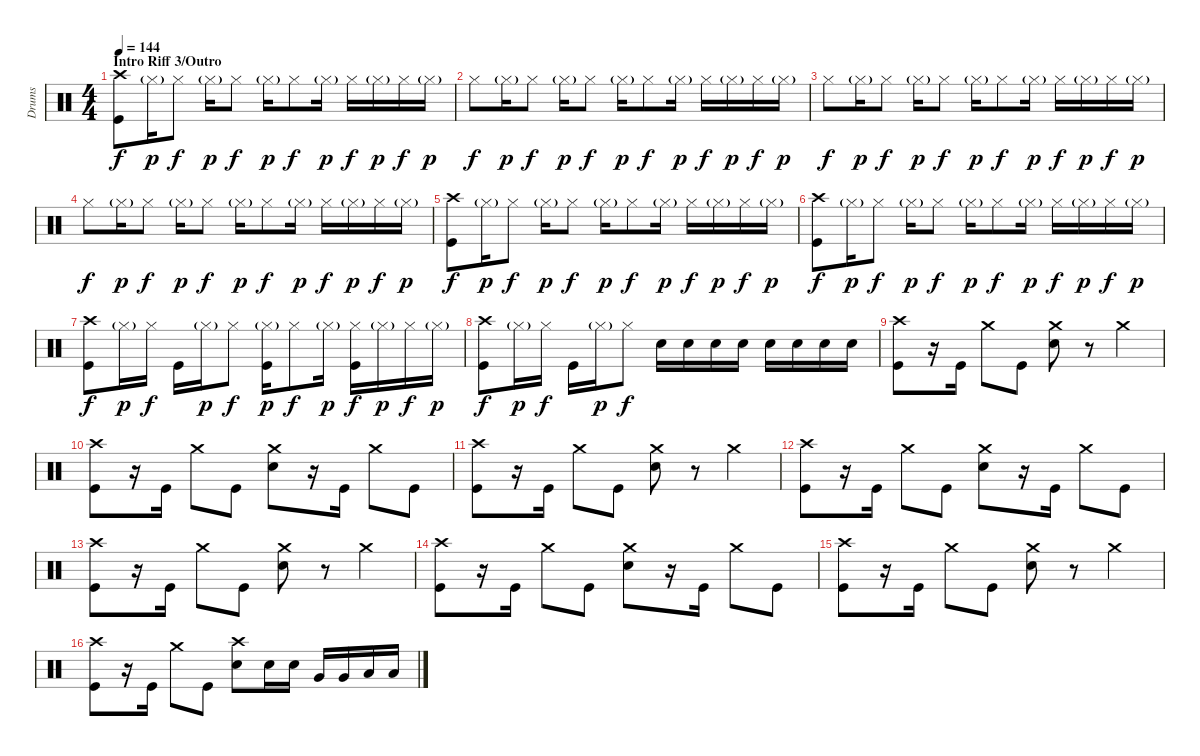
\track ("Drums" "Drums") {instrument percussion}
\staff {score}
\articulation defaults
\ts (4 4)
\section ("" "Intro Riff 3/Outro")
\tempo 144
\clef neutral
\ks c
("Crash high (hit)" "Kick (hit)").8{dy f} "Hi-Hat (closed)"{g}.16{dy p} "Hi-Hat (closed)".8{dy f} "Hi-Hat (closed)"{g}.16{dy p} "Hi-Hat (closed)".8{dy f} "Hi-Hat (closed)"{g}.16{dy p} "Hi-Hat (closed)".8{dy f} "Hi-Hat (closed)"{g}.16{dy p} "Hi-Hat (closed)".16{dy f} "Hi-Hat (closed)"{g}.16{dy p} "Hi-Hat (closed)".16{dy f} "Hi-Hat (closed)"{g}.16{dy p} |
"Hi-Hat (closed)".8{dy f} "Hi-Hat (closed)"{g}.16{dy p} "Hi-Hat (closed)".8{dy f} "Hi-Hat (closed)"{g}.16{dy p} "Hi-Hat (closed)".8{dy f} "Hi-Hat (closed)"{g}.16{dy p} "Hi-Hat (closed)".8{dy f} "Hi-Hat (closed)"{g}.16{dy p} "Hi-Hat (closed)".16{dy f} "Hi-Hat (closed)"{g}.16{dy p} "Hi-Hat (closed)".16{dy f} "Hi-Hat (closed)"{g}.16{dy p} |
"Hi-Hat (closed)".8{dy f} "Hi-Hat (closed)"{g}.16{dy p} "Hi-Hat (closed)".8{dy f} "Hi-Hat (closed)"{g}.16{dy p} "Hi-Hat (closed)".8{dy f} "Hi-Hat (closed)"{g}.16{dy p} "Hi-Hat (closed)".8{dy f} "Hi-Hat (closed)"{g}.16{dy p} "Hi-Hat (closed)".16{dy f} "Hi-Hat (closed)"{g}.16{dy p} "Hi-Hat (closed)".16{dy f} "Hi-Hat (closed)"{g}.16{dy p} |
"Hi-Hat (closed)".8{dy f} "Hi-Hat (closed)"{g}.16{dy p} "Hi-Hat (closed)".8{dy f} "Hi-Hat (closed)"{g}.16{dy p} "Hi-Hat (closed)".8{dy f} "Hi-Hat (closed)"{g}.16{dy p} "Hi-Hat (closed)".8{dy f} "Hi-Hat (closed)"{g}.16{dy p} "Hi-Hat (closed)".16{dy f} "Hi-Hat (closed)"{g}.16{dy p} "Hi-Hat (closed)".16{dy f} "Hi-Hat (closed)"{g}.16{dy p} |
("Crash high (hit)" "Kick (hit)").8{dy f} "Hi-Hat (closed)"{g}.16{dy p} "Hi-Hat (closed)".8{dy f} "Hi-Hat (closed)"{g}.16{dy p} "Hi-Hat (closed)".8{dy f} "Hi-Hat (closed)"{g}.16{dy p} "Hi-Hat (closed)".8{dy f} "Hi-Hat (closed)"{g}.16{dy p} "Hi-Hat (closed)".16{dy f} "Hi-Hat (closed)"{g}.16{dy p} "Hi-Hat (closed)".16{dy f} "Hi-Hat (closed)"{g}.16{dy p} |
("Crash high (hit)" "Kick (hit)").8{dy f} "Hi-Hat (closed)"{g}.16{dy p} "Hi-Hat (closed)".8{dy f} "Hi-Hat (closed)"{g}.16{dy p} "Hi-Hat (closed)".8{dy f} "Hi-Hat (closed)"{g}.16{dy p} "Hi-Hat (closed)".8{dy f} "Hi-Hat (closed)"{g}.16{dy p} "Hi-Hat (closed)".16{dy f} "Hi-Hat (closed)"{g}.16{dy p} "Hi-Hat (closed)".16{dy f} "Hi-Hat (closed)"{g}.16{dy p} |
("Crash high (hit)" "Kick (hit)").8{dy f} "Hi-Hat (closed)"{g}.16{dy p} "Hi-Hat (closed)".16{dy f} "Kick (hit)".16 "Hi-Hat (closed)"{g}.16{dy p} "Hi-Hat (closed)".8{dy f} ("Kick (hit)" "Hi-Hat (closed)"{g}).16{dy p} "Hi-Hat (closed)".8{dy f} "Hi-Hat (closed)"{g}.16{dy p} ("Kick (hit)" "Hi-Hat (closed)").16{dy f} "Hi-Hat (closed)"{g}.16{dy p} "Hi-Hat (closed)".16{dy f} "Hi-Hat (closed)"{g}.16{dy p} |
("Crash high (hit)" "Kick (hit)").8{dy f} "Hi-Hat (closed)"{g}.16{dy p} "Hi-Hat (closed)".16{dy f} "Kick (hit)".16 "Hi-Hat (closed)"{g}.16{dy p} "Hi-Hat (closed)".8{dy f} "Electric Snare (hit)".16 "Electric Snare (hit)".16 "Electric Snare (hit)".16 "Electric Snare (hit)".16 "Electric Snare (hit)".16 "Electric Snare (hit)".16 "Electric Snare (hit)".16 "Electric Snare (hit)".16 |
("Crash high (hit)" "Kick (hit)").8 r.16 "Kick (hit)".16 "Crash medium (hit)".8 "Kick (hit)".8 ("Crash medium (hit)" "Electric Snare (hit)").8 r.8 "Crash medium (hit)".4 |
("Crash high (hit)" "Kick (hit)").8 r.16 "Kick (hit)".16 "Crash medium (hit)".8 "Kick (hit)".8 ("Crash medium (hit)" "Electric Snare (hit)").8 r.16 "Kick (hit)".16 "Crash medium (hit)".8 "Kick (hit)".8 |
("Crash high (hit)" "Kick (hit)").8 r.16 "Kick (hit)".16 "Crash medium (hit)".8 "Kick (hit)".8 ("Crash medium (hit)" "Electric Snare (hit)").8 r.8 "Crash medium (hit)".4 |
("Crash high (hit)" "Kick (hit)").8 r.16 "Kick (hit)".16 "Crash medium (hit)".8 "Kick (hit)".8 ("Crash medium (hit)" "Electric Snare (hit)").8 r.16 "Kick (hit)".16 "Crash medium (hit)".8 "Kick (hit)".8 |
("Crash high (hit)" "Kick (hit)").8 r.16 "Kick (hit)".16 "Crash medium (hit)".8 "Kick (hit)".8 ("Crash medium (hit)" "Electric Snare (hit)").8 r.8 "Crash medium (hit)".4 |
("Crash high (hit)" "Kick (hit)").8 r.16 "Kick (hit)".16 "Crash medium (hit)".8 "Kick (hit)".8 ("Crash medium (hit)" "Electric Snare (hit)").8 r.16 "Kick (hit)".16 "Crash medium (hit)".8 "Kick (hit)".8 |
("Crash high (hit)" "Kick (hit)").8 r.16 "Kick (hit)".16 "Crash medium (hit)".8 "Kick (hit)".8 ("Crash medium (hit)" "Electric Snare (hit)").8 r.8 "Crash medium (hit)".4 |
("Crash high (hit)" "Kick (hit)").8 r.16 "Kick (hit)".16 "Crash medium (hit)".8 "Kick (hit)".8 ("Crash high (hit)" "Electric Snare (hit)").8 "Electric Snare (hit)".16 "Electric Snare (hit)".16 "Very Low Tom (hit)".16 "Very Low Tom (hit)".16 "Low Floor Tom (hit)".16 "Low Floor Tom (hit)".16
